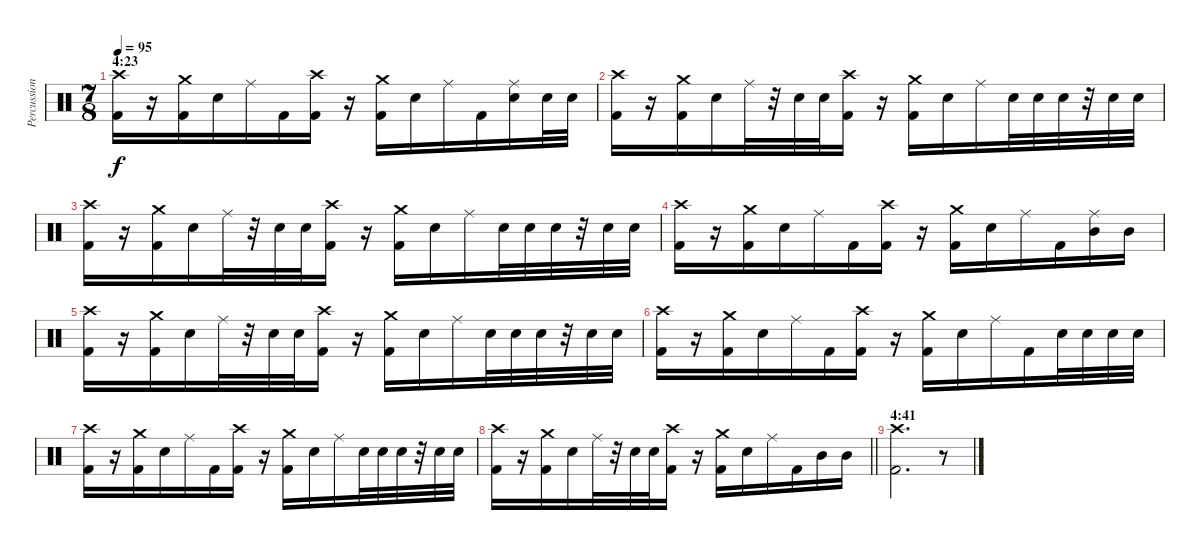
\track ("Percussion" "Percussion") {instrument percussion}
\staff {score}
\articulation defaults
\ts (7 8)
\section ("" "4:23")
\tempo 95
\clef neutral
\ks c
("Crash high (hit)" "Kick (hit) 2").16{dy f} r.16 ("Crash medium (hit)" "Kick (hit) 2").16 "Electric Snare (hit)".16 "Ride (middle)".16 "Kick (hit) 2".16 ("Crash high (hit)" "Kick (hit) 2").16 r.16 ("Crash medium (hit)" "Kick (hit) 2").16 "Electric Snare (hit)".16 "Ride (middle)".16 "Kick (hit) 2".16 ("Ride (middle)" "Electric Snare (hit)").16 "Electric Snare (hit)".32 "Electric Snare (hit)".32 |
("Crash high (hit)" "Kick (hit) 2").16 r.16 ("Crash medium (hit)" "Kick (hit) 2").16 "Electric Snare (hit)".16 "Ride (middle)".32 r.32 "Electric Snare (hit)".32 "Electric Snare (hit)".32 ("Crash high (hit)" "Kick (hit) 2").16 r.16 ("Crash medium (hit)" "Kick (hit) 2").16 "Electric Snare (hit)".16 "Ride (middle)".16 "Electric Snare (hit)".32 "Electric Snare (hit)".32 "Electric Snare (hit)".32 r.32 "Electric Snare (hit)".32 "Electric Snare (hit)".32 |
("Crash high (hit)" "Kick (hit) 2").16 r.16 ("Crash medium (hit)" "Kick (hit) 2").16 "Electric Snare (hit)".16 "Ride (middle)".32 r.32 "Electric Snare (hit)".32 "Electric Snare (hit)".32 ("Crash high (hit)" "Kick (hit) 2").16 r.16 ("Crash medium (hit)" "Kick (hit) 2").16 "Electric Snare (hit)".16 "Ride (middle)".16 "Electric Snare (hit)".32 "Electric Snare (hit)".32 "Electric Snare (hit)".32 r.32 "Electric Snare (hit)".32 "Electric Snare (hit)".32 |
("Crash high (hit)" "Kick (hit) 2").16 r.16 ("Crash medium (hit)" "Kick (hit) 2").16 "Electric Snare (hit)".16 "Ride (middle)".16 "Kick (hit) 2".16 ("Crash high (hit)" "Kick (hit) 2").16 r.16 ("Crash medium (hit)" "Kick (hit) 2").16 "Electric Snare (hit)".16 "Ride (middle)".16 "Kick (hit) 2".16 ("Ride (middle)" "Mid Tom (hit)").16 "Mid Tom (hit)".16 |
("Crash high (hit)" "Kick (hit) 2").16 r.16 ("Crash medium (hit)" "Kick (hit) 2").16 "Electric Snare (hit)".16 "Ride (middle)".32 r.32 "Electric Snare (hit)".32 "Electric Snare (hit)".32 ("Crash high (hit)" "Kick (hit) 2").16 r.16 ("Crash medium (hit)" "Kick (hit) 2").16 "Electric Snare (hit)".16 "Ride (middle)".16 "Electric Snare (hit)".32 "Electric Snare (hit)".32 "Electric Snare (hit)".32 r.32 "Electric Snare (hit)".32 "Electric Snare (hit)".32 |
("Crash high (hit)" "Kick (hit) 2").16 r.16 ("Crash medium (hit)" "Kick (hit) 2").16 "Electric Snare (hit)".16 "Ride (middle)".16 "Kick (hit) 2".16 ("Crash high (hit)" "Kick (hit) 2").16 r.16 ("Crash medium (hit)" "Kick (hit) 2").16 "Electric Snare (hit)".16 "Ride (middle)".16 "Kick (hit) 2".16 "Electric Snare (hit)".32 "Electric Snare (hit)".32 "Electric Snare (hit)".32 "Electric Snare (hit)".32 |
("Crash high (hit)" "Kick (hit) 2").16 r.16 ("Crash medium (hit)" "Kick (hit) 2").16 "Electric Snare (hit)".16 "Ride (middle)".16 "Kick (hit) 2".16 ("Crash high (hit)" "Kick (hit) 2").16 r.16 ("Crash medium (hit)" "Kick (hit) 2").16 "Electric Snare (hit)".16 "Ride (middle)".16 "Electric Snare (hit)".32 "Electric Snare (hit)".32 "Electric Snare (hit)".32 r.32 "Electric Snare (hit)".32 "Electric Snare (hit)".32 |
\barLineRight lightlight
("Crash high (hit)" "Kick (hit) 2").16 r.16 ("Crash medium (hit)" "Kick (hit) 2").16 "Electric Snare (hit)".16 "Ride (middle)".32 r.32 "Electric Snare (hit)".32 "Electric Snare (hit)".32 ("Crash high (hit)" "Kick (hit) 2").16 r.16 ("Crash medium (hit)" "Kick (hit) 2").16 "Electric Snare (hit)".16 "Ride (middle)".16 "Kick (hit) 2".16 "Mid Tom (hit)".16 "Mid Tom (hit)".16 |
\section ("" "4:41")
("Crash high (hit)" "Kick (hit) 2").2{d} r.8
